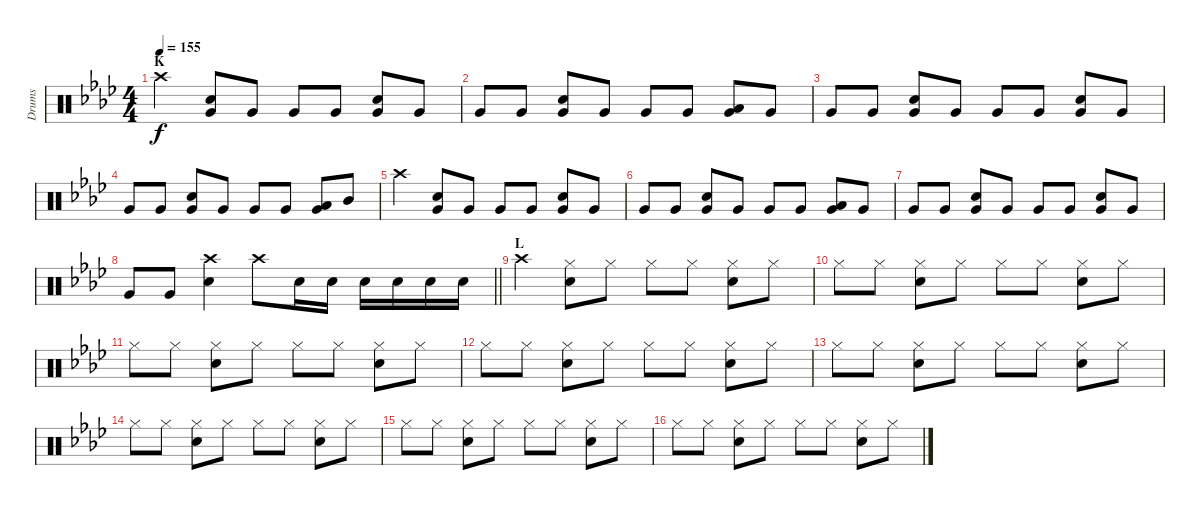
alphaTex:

\track ("Drums" "Drums") {instrument percussion}
\staff {score}
\articulation defaults
\ts (4 4)
\section ("" "K")
\tempo 155
\clef neutral
\ks ab "Crash high (hit)".4{dy f}
("Very Low Tom (hit)" "Snare (hit) 2").8 "Very Low Tom (hit)".8 "Very Low Tom (hit)".8 "Very Low Tom (hit)".8 ("Very Low Tom (hit)" "Snare (hit) 2").8 "Very Low Tom (hit)".8 |
"Very Low Tom (hit)".8 "Very Low Tom (hit)".8 ("Very Low Tom (hit)" "Snare (hit) 2").8 "Very Low Tom (hit)".8 "Very Low Tom (hit)".8 "Very Low Tom (hit)".8 ("Very Low Tom (hit)" "Low Tom (hit)").8 "Very Low Tom (hit)".8 |
"Very Low Tom (hit)".8 "Very Low Tom (hit)".8 ("Very Low Tom (hit)" "Snare (hit) 2").8 "Very Low Tom (hit)".8 "Very Low Tom (hit)".8 "Very Low Tom (hit)".8 ("Very Low Tom (hit)" "Snare (hit) 2").8 "Very Low Tom (hit)".8 |
"Very Low Tom (hit)".8 "Very Low Tom (hit)".8 ("Very Low Tom (hit)" "Snare (hit) 2").8 "Very Low Tom (hit)".8 "Very Low Tom (hit)".8 "Very Low Tom (hit)".8 ("Very Low Tom (hit)" "Low Tom (hit)").8 "Mid Tom (hit)".8 |
"Crash high (hit)".4 ("Very Low Tom (hit)" "Snare (hit) 2").8 "Very Low Tom (hit)".8 "Very Low Tom (hit)".8 "Very Low Tom (hit)".8 ("Very Low Tom (hit)" "Snare (hit) 2").8 "Very Low Tom (hit)".8 |
"Very Low Tom (hit)".8 "Very Low Tom (hit)".8 ("Very Low Tom (hit)" "Snare (hit) 2").8 "Very Low Tom (hit)".8 "Very Low Tom (hit)".8 "Very Low Tom (hit)".8 ("Very Low Tom (hit)" "Low Tom (hit)").8 "Very Low Tom (hit)".8 |
"Very Low Tom (hit)".8 "Very Low Tom (hit)".8 ("Very Low Tom (hit)" "Snare (hit) 2").8 "Very Low Tom (hit)".8 "Very Low Tom (hit)".8 "Very Low Tom (hit)".8 ("Very Low Tom (hit)" "Snare (hit) 2").8 "Very Low Tom (hit)".8 |
\barLineRight lightlight "Very Low Tom (hit)".8 "Very Low Tom (hit)".8
("Crash high (hit)" "Snare (hit) 2").4 "Crash high (hit)".8 "Snare (hit) 2".16 "Snare (hit) 2".16 "Snare (hit) 2".16 "Snare (hit) 2".16 "Snare (hit) 2".16 "Snare (hit) 2".16 |
\section ("" "L")
"Crash high (hit)".4 ("Hi-Hat (closed)" "Snare (hit) 2").8 "Hi-Hat (closed)".8 "Hi-Hat (closed)".8 "Hi-Hat (closed)".8 ("Hi-Hat (closed)" "Snare (hit) 2").8 "Hi-Hat (closed)".8 |
"Hi-Hat (closed)".8 "Hi-Hat (closed)".8 ("Hi-Hat (closed)" "Snare (hit) 2").8 "Hi-Hat (closed)".8 "Hi-Hat (closed)".8 "Hi-Hat (closed)".8 ("Hi-Hat (closed)" "Snare (hit) 2").8 "Hi-Hat (closed)".8 |
"Hi-Hat (closed)".8 "Hi-Hat (closed)".8 ("Hi-Hat (closed)" "Snare (hit) 2").8 "Hi-Hat (closed)".8 "Hi-Hat (closed)".8 "Hi-Hat (closed)".8 ("Hi-Hat (closed)" "Snare (hit) 2").8 "Hi-Hat (closed)".8 |
"Hi-Hat (closed)".8 "Hi-Hat (closed)".8 ("Hi-Hat (closed)" "Snare (hit) 2").8 "Hi-Hat (closed)".8 "Hi-Hat (closed)".8 "Hi-Hat (closed)".8 ("Hi-Hat (closed)" "Snare (hit) 2").8 "Hi-Hat (closed)".8 |
"Hi-Hat (closed)".8 "Hi-Hat (closed)".8 ("Hi-Hat (closed)" "Snare (hit) 2").8 "Hi-Hat (closed)".8 "Hi-Hat (closed)".8 "Hi-Hat (closed)".8 ("Hi-Hat (closed)" "Snare (hit) 2").8 "Hi-Hat (closed)".8 |
"Hi-Hat (closed)".8 "Hi-Hat (closed)".8 ("Hi-Hat (closed)" "Snare (hit) 2").8 "Hi-Hat (closed)".8 "Hi-Hat (closed)".8 "Hi-Hat (closed)".8 ("Hi-Hat (closed)" "Snare (hit) 2").8 "Hi-Hat (closed)".8 |
"Hi-Hat (closed)".8 "Hi-Hat (closed)".8 ("Hi-Hat (closed)" "Snare (hit) 2").8 "Hi-Hat (closed)".8 "Hi-Hat (closed)".8 "Hi-Hat (closed)".8 ("Hi-Hat (closed)" "Snare (hit) 2").8 "Hi-Hat (closed)".8 |
"Hi-Hat (closed)".8 "Hi-Hat (closed)".8 ("Hi-Hat (closed)" "Snare (hit) 2").8 "Hi-Hat (closed)".8 "Hi-Hat (closed)".8 "Hi-Hat (closed)".8 ("Hi-Hat (closed)" "Snare (hit) 2").8 "Hi-Hat (closed)".8
